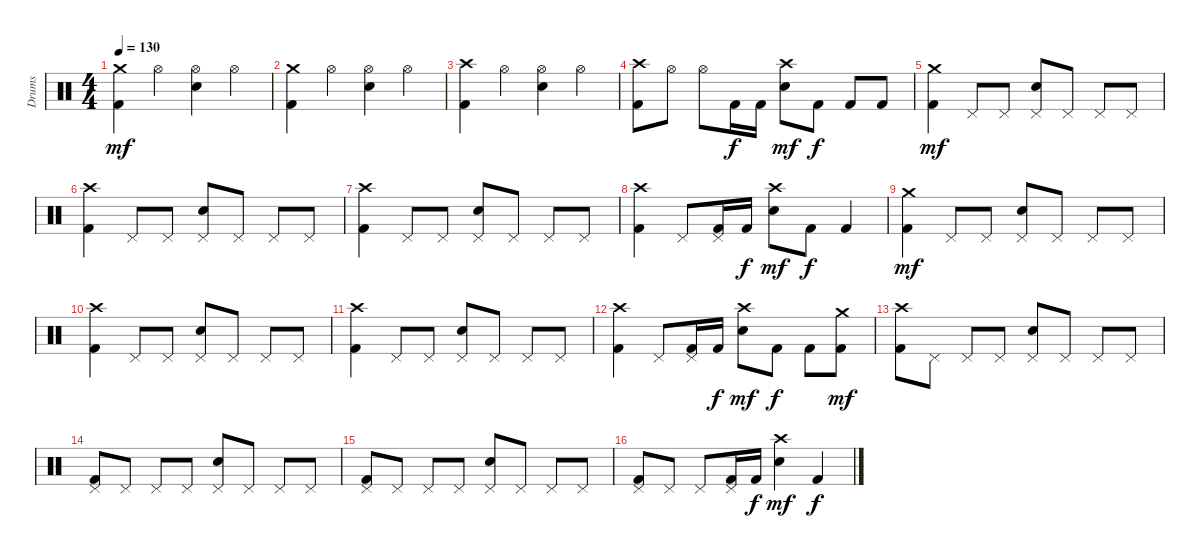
\track ("Drums" "Drums") {instrument percussion}
\staff {score}
\articulation defaults
\ts (4 4)
\tempo 130
\clef neutral
\ks c
("Kick (hit) 2" "Crash medium (hit)").4{dy mf} "Hi-Hat (open)".4 ("Electric Snare (hit)" "Hi-Hat (open)").4 "Hi-Hat (open)".4 |
("Kick (hit) 2" "Crash medium (hit)").4 "Hi-Hat (open)".4 ("Electric Snare (hit)" "Hi-Hat (open)").4 "Hi-Hat (open)".4 |
("Kick (hit) 2" "Crash high (hit)").4 "Hi-Hat (open)".4 ("Electric Snare (hit)" "Hi-Hat (open)").4 "Hi-Hat (open)".4 |
("Kick (hit) 2" "Crash high (hit)").8 "Hi-Hat (open)".8 "Hi-Hat (open)".8 "Kick (hit) 2".16{dy f} "Kick (hit) 2".16 ("Electric Snare (hit)" "Crash high (hit)").8{dy mf} "Kick (hit) 2".8{dy f} "Kick (hit) 2".8 "Kick (hit) 2".8 |
("Kick (hit) 2" "Crash medium (hit)").4{dy mf} "Pedal Hi-Hat (hit)".8 "Pedal Hi-Hat (hit)".8 ("Electric Snare (hit)" "Pedal Hi-Hat (hit)").8 "Pedal Hi-Hat (hit)".8 "Pedal Hi-Hat (hit)".8 "Pedal Hi-Hat (hit)".8 |
("Kick (hit) 2" "Crash high (hit)").4 "Pedal Hi-Hat (hit)".8 "Pedal Hi-Hat (hit)".8 ("Electric Snare (hit)" "Pedal Hi-Hat (hit)").8 "Pedal Hi-Hat (hit)".8 "Pedal Hi-Hat (hit)".8 "Pedal Hi-Hat (hit)".8 |
("Kick (hit) 2" "Crash high (hit)").4 "Pedal Hi-Hat (hit)".8 "Pedal Hi-Hat (hit)".8 ("Electric Snare (hit)" "Pedal Hi-Hat (hit)").8 "Pedal Hi-Hat (hit)".8 "Pedal Hi-Hat (hit)".8 "Pedal Hi-Hat (hit)".8 |
("Kick (hit) 2" "Crash high (hit)").4 "Pedal Hi-Hat (hit)".8 ("Kick (hit) 2" "Pedal Hi-Hat (hit)").16 "Kick (hit) 2".16{dy f} ("Electric Snare (hit)" "Crash high (hit)").8{dy mf} "Kick (hit) 2".8{dy f} "Kick (hit) 2".4 |
("Kick (hit) 2" "Crash medium (hit)").4{dy mf} "Pedal Hi-Hat (hit)".8 "Pedal Hi-Hat (hit)".8 ("Electric Snare (hit)" "Pedal Hi-Hat (hit)").8 "Pedal Hi-Hat (hit)".8 "Pedal Hi-Hat (hit)".8 "Pedal Hi-Hat (hit)".8 |
("Kick (hit) 2" "Crash high (hit)").4 "Pedal Hi-Hat (hit)".8 "Pedal Hi-Hat (hit)".8 ("Electric Snare (hit)" "Pedal Hi-Hat (hit)").8 "Pedal Hi-Hat (hit)".8 "Pedal Hi-Hat (hit)".8 "Pedal Hi-Hat (hit)".8 |
("Kick (hit) 2" "Crash high (hit)").4 "Pedal Hi-Hat (hit)".8 "Pedal Hi-Hat (hit)".8 ("Electric Snare (hit)" "Pedal Hi-Hat (hit)").8 "Pedal Hi-Hat (hit)".8 "Pedal Hi-Hat (hit)".8 "Pedal Hi-Hat (hit)".8 |
("Kick (hit) 2" "Crash high (hit)").4 "Pedal Hi-Hat (hit)".8 ("Kick (hit) 2" "Pedal Hi-Hat (hit)").16 "Kick (hit) 2".16{dy f} ("Electric Snare (hit)" "Crash high (hit)").8{dy mf} "Kick (hit) 2".8{dy f} "Kick (hit) 2".8 ("Kick (hit) 2" "Crash medium (hit)").8{dy mf} |
("Kick (hit) 2" "Crash high (hit)").8 "Pedal Hi-Hat (hit)".8 "Pedal Hi-Hat (hit)".8 "Pedal Hi-Hat (hit)".8 ("Electric Snare (hit)" "Pedal Hi-Hat (hit)").8 "Pedal Hi-Hat (hit)".8 "Pedal Hi-Hat (hit)".8 "Pedal Hi-Hat (hit)".8 |
("Kick (hit) 2" "Pedal Hi-Hat (hit)").8 "Pedal Hi-Hat (hit)".8 "Pedal Hi-Hat (hit)".8 "Pedal Hi-Hat (hit)".8 ("Electric Snare (hit)" "Pedal Hi-Hat (hit)").8 "Pedal Hi-Hat (hit)".8 "Pedal Hi-Hat (hit)".8 "Pedal Hi-Hat (hit)".8 |
("Kick (hit) 2" "Pedal Hi-Hat (hit)").8 "Pedal Hi-Hat (hit)".8 "Pedal Hi-Hat (hit)".8 "Pedal Hi-Hat (hit)".8 ("Electric Snare (hit)" "Pedal Hi-Hat (hit)").8 "Pedal Hi-Hat (hit)".8 "Pedal Hi-Hat (hit)".8 "Pedal Hi-Hat (hit)".8 |
("Kick (hit) 2" "Pedal Hi-Hat (hit)").8 "Pedal Hi-Hat (hit)".8 "Pedal Hi-Hat (hit)".8 ("Kick (hit) 2" "Pedal Hi-Hat (hit)").16 "Kick (hit) 2".16{dy f} ("Electric Snare (hit)" "Crash high (hit)").4{dy mf} "Kick (hit) 2".4{dy f}
